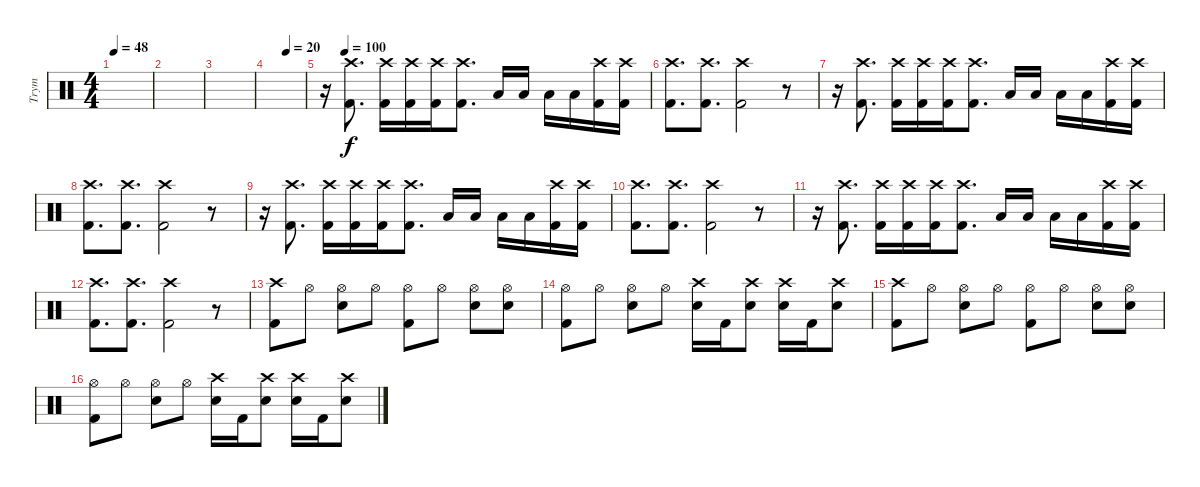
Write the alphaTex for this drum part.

\track ("Trym" "Trym") {instrument percussion}
\staff {score}
\articulation defaults
\ts (4 4)
\tempo 48
\clef neutral
\ks c
|
|
|
\tempo (20 0.5)
|
\tempo (100 0.0625)
r.16 ("Crash high (hit)" "Kick (hit) 2").8{d} ("Crash high (hit)" "Kick (hit) 2").16 ("Crash high (hit)" "Kick (hit) 2").16 ("Crash high (hit)" "Kick (hit) 2").16 ("Crash high (hit)" "Kick (hit) 2").8{d} "Low Tom (hit)".16 "Low Tom (hit)".16 "Low Tom (hit)".16 "Low Tom (hit)".16 ("Crash high (hit)" "Kick (hit) 2").16 ("Crash high (hit)" "Kick (hit) 2").16 |
("Crash high (hit)" "Kick (hit) 2").8{d} ("Crash high (hit)" "Kick (hit) 2").8{d} ("Crash high (hit)" "Kick (hit) 2").2 r.8 |
r.16 ("Crash high (hit)" "Kick (hit) 2").8{d} ("Crash high (hit)" "Kick (hit) 2").16 ("Crash high (hit)" "Kick (hit) 2").16 ("Crash high (hit)" "Kick (hit) 2").16 ("Crash high (hit)" "Kick (hit) 2").8{d} "Low Tom (hit)".16 "Low Tom (hit)".16 "Low Tom (hit)".16 "Low Tom (hit)".16 ("Crash high (hit)" "Kick (hit) 2").16 ("Crash high (hit)" "Kick (hit) 2").16 |
("Crash high (hit)" "Kick (hit) 2").8{d} ("Crash high (hit)" "Kick (hit) 2").8{d} ("Crash high (hit)" "Kick (hit) 2").2 r.8 |
r.16 ("Crash high (hit)" "Kick (hit) 2").8{d} ("Crash high (hit)" "Kick (hit) 2").16 ("Crash high (hit)" "Kick (hit) 2").16 ("Crash high (hit)" "Kick (hit) 2").16 ("Crash high (hit)" "Kick (hit) 2").8{d} "Low Tom (hit)".16 "Low Tom (hit)".16 "Low Tom (hit)".16 "Low Tom (hit)".16 ("Crash high (hit)" "Kick (hit) 2").16 ("Crash high (hit)" "Kick (hit) 2").16 |
("Crash high (hit)" "Kick (hit) 2").8{d} ("Crash high (hit)" "Kick (hit) 2").8{d} ("Crash high (hit)" "Kick (hit) 2").2 r.8 |
r.16 ("Crash high (hit)" "Kick (hit) 2").8{d} ("Crash high (hit)" "Kick (hit) 2").16 ("Crash high (hit)" "Kick (hit) 2").16 ("Crash high (hit)" "Kick (hit) 2").16 ("Crash high (hit)" "Kick (hit) 2").8{d} "Low Tom (hit)".16 "Low Tom (hit)".16 "Low Tom (hit)".16 "Low Tom (hit)".16 ("Crash high (hit)" "Kick (hit) 2").16 ("Crash high (hit)" "Kick (hit) 2").16 |
("Crash high (hit)" "Kick (hit) 2").8{d} ("Crash high (hit)" "Kick (hit) 2").8{d} ("Crash high (hit)" "Kick (hit) 2").2 r.8 |
("Crash high (hit)" "Kick (hit) 2").8 "Hi-Hat (open)".8 ("Hi-Hat (open)" "Electric Snare (hit)").8 "Hi-Hat (open)".8 ("Hi-Hat (open)" "Kick (hit) 2").8 "Hi-Hat (open)".8 ("Hi-Hat (open)" "Electric Snare (hit)").8 ("Hi-Hat (open)" "Electric Snare (hit)").8 |
("Hi-Hat (open)" "Kick (hit) 2").8 "Hi-Hat (open)".8 ("Hi-Hat (open)" "Electric Snare (hit)").8 "Hi-Hat (open)".8 ("Crash high (hit)" "Electric Snare (hit)").16 "Kick (hit) 2".16 ("Crash high (hit)" "Electric Snare (hit)").8 ("Crash high (hit)" "Electric Snare (hit)").16 "Kick (hit) 2".16 ("Crash high (hit)" "Electric Snare (hit)").8 |
("Crash high (hit)" "Kick (hit) 2").8 "Hi-Hat (open)".8 ("Hi-Hat (open)" "Electric Snare (hit)").8 "Hi-Hat (open)".8 ("Hi-Hat (open)" "Kick (hit) 2").8 "Hi-Hat (open)".8 ("Hi-Hat (open)" "Electric Snare (hit)").8 ("Hi-Hat (open)" "Electric Snare (hit)").8 |
("Hi-Hat (open)" "Kick (hit) 2").8 "Hi-Hat (open)".8 ("Hi-Hat (open)" "Electric Snare (hit)").8 "Hi-Hat (open)".8 ("Crash high (hit)" "Electric Snare (hit)").16 "Kick (hit) 2".16 ("Crash high (hit)" "Electric Snare (hit)").8 ("Crash high (hit)" "Electric Snare (hit)").16 "Kick (hit) 2".16 ("Crash high (hit)" "Electric Snare (hit)").8
